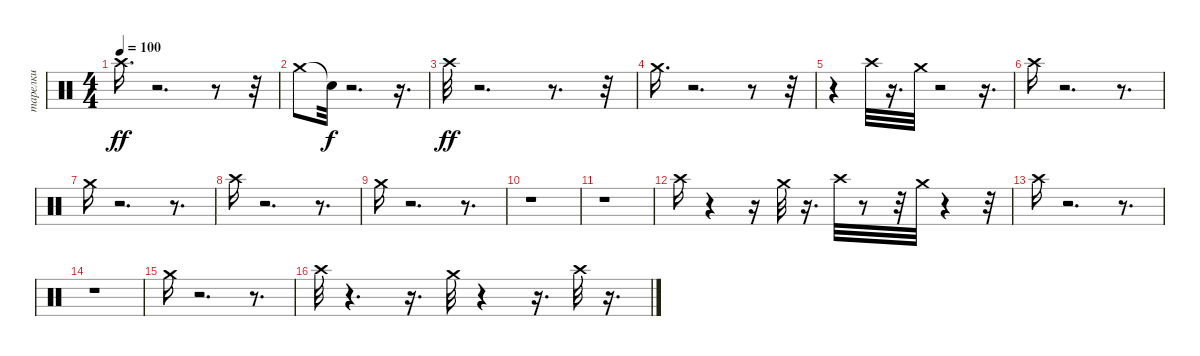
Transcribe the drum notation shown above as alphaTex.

\track ("тарелки" "тарелки") {instrument percussion}
\staff {score}
\articulation defaults
\ts (4 4)
\tempo 100
\clef neutral
\ks c "Crash high (hit)".16{d dy ff}
r.2{d} r.8 r.32 |
"Crash medium (hit)".8 "Snare (hit)"{t}.32{dy f} r.2{d} r.16{d} |
"Crash high (hit)".32{dy ff} r.2{d} r.8{d} r.32 |
"Crash medium (hit)".16{d} r.2{d} r.8 r.32 |
r.4 "Crash high (hit)".32 r.16{d} "Crash medium (hit)".32 r.2 r.16{d} |
"Crash high (hit)".16 r.2{d} r.8{d} |
"Crash medium (hit)".16 r.2{d} r.8{d} |
"Crash high (hit)".16 r.2{d} r.8{d} |
"Crash medium (hit)".16 r.2{d} r.8{d} |
r.1 |
r.1 |
"Crash high (hit)".16 r.4 r.16 "Crash medium (hit)".32 r.16{d} "Crash high (hit)".32 r.8 r.32 "Crash medium (hit)".32 r.4 r.32 |
"Crash high (hit)".16 r.2{d} r.8{d} |
r.1 |
"Crash medium (hit)".16 r.2{d} r.8{d} |
"Crash high (hit)".32 r.4{d} r.16{d} "Crash medium (hit)".32 r.4 r.16{d} "Crash high (hit)".32 r.16{d}
